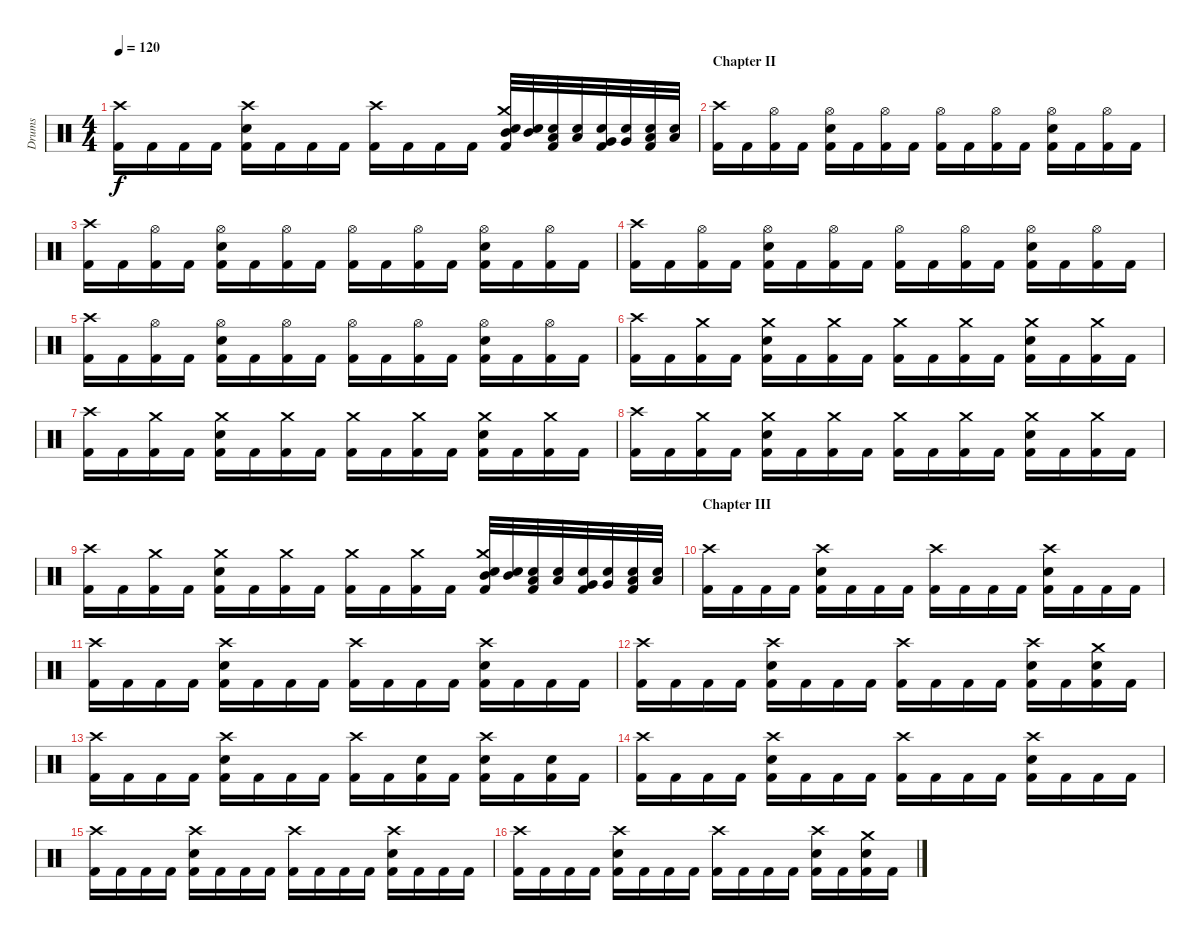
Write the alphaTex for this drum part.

\track ("Drums" "Drums") {instrument percussion}
\staff {score}
\articulation defaults
\ts (4 4)
\tempo 120
\clef neutral
\ks c
("Crash high (hit)" "Kick (hit) 2").16{dy f} "Kick (hit) 2".16 "Kick (hit) 2".16 "Kick (hit) 2".16 ("Crash high (hit)" "Electric Snare (hit)" "Kick (hit) 2").16 "Kick (hit) 2".16 "Kick (hit) 2".16 "Kick (hit) 2".16 ("Crash high (hit)" "Kick (hit) 2").16 "Kick (hit) 2".16 "Kick (hit) 2".16 "Kick (hit) 2".16 ("Crash medium (hit)" "Electric Snare (hit)" "Mid Tom (hit)" "Kick (hit) 2").32 ("Electric Snare (hit)" "Mid Tom (hit)").32 ("Electric Snare (hit)" "Low Tom (hit)" "Kick (hit) 2").32 ("Electric Snare (hit)" "Low Tom (hit)").32 ("Electric Snare (hit)" "Very Low Tom (hit)" "Kick (hit) 2").32 ("Electric Snare (hit)" "Very Low Tom (hit)").32 ("Electric Snare (hit)" "Low Floor Tom (hit)" "Kick (hit) 2").32 ("Electric Snare (hit)" "Low Floor Tom (hit)").32 |
\section ("" "Chapter II")
("Crash high (hit)" "Kick (hit) 2").16 "Kick (hit) 2".16 ("Hi-Hat (open)" "Kick (hit) 2").16 "Kick (hit) 2".16 ("Hi-Hat (open)" "Electric Snare (hit)" "Kick (hit) 2").16 "Kick (hit) 2".16 ("Hi-Hat (open)" "Kick (hit) 2").16 "Kick (hit) 2".16 ("Hi-Hat (open)" "Kick (hit) 2").16 "Kick (hit) 2".16 ("Hi-Hat (open)" "Kick (hit) 2").16 "Kick (hit) 2".16 ("Hi-Hat (open)" "Electric Snare (hit)" "Kick (hit) 2").16 "Kick (hit) 2".16 ("Hi-Hat (open)" "Kick (hit) 2").16 "Kick (hit) 2".16 |
("Crash high (hit)" "Kick (hit) 2").16 "Kick (hit) 2".16 ("Hi-Hat (open)" "Kick (hit) 2").16 "Kick (hit) 2".16 ("Hi-Hat (open)" "Electric Snare (hit)" "Kick (hit) 2").16 "Kick (hit) 2".16 ("Hi-Hat (open)" "Kick (hit) 2").16 "Kick (hit) 2".16 ("Hi-Hat (open)" "Kick (hit) 2").16 "Kick (hit) 2".16 ("Hi-Hat (open)" "Kick (hit) 2").16 "Kick (hit) 2".16 ("Hi-Hat (open)" "Electric Snare (hit)" "Kick (hit) 2").16 "Kick (hit) 2".16 ("Hi-Hat (open)" "Kick (hit) 2").16 "Kick (hit) 2".16 |
("Crash high (hit)" "Kick (hit) 2").16 "Kick (hit) 2".16 ("Hi-Hat (open)" "Kick (hit) 2").16 "Kick (hit) 2".16 ("Hi-Hat (open)" "Electric Snare (hit)" "Kick (hit) 2").16 "Kick (hit) 2".16 ("Hi-Hat (open)" "Kick (hit) 2").16 "Kick (hit) 2".16 ("Hi-Hat (open)" "Kick (hit) 2").16 "Kick (hit) 2".16 ("Hi-Hat (open)" "Kick (hit) 2").16 "Kick (hit) 2".16 ("Hi-Hat (open)" "Electric Snare (hit)" "Kick (hit) 2").16 "Kick (hit) 2".16 ("Hi-Hat (open)" "Kick (hit) 2").16 "Kick (hit) 2".16 |
("Crash high (hit)" "Kick (hit) 2").16 "Kick (hit) 2".16 ("Hi-Hat (open)" "Kick (hit) 2").16 "Kick (hit) 2".16 ("Hi-Hat (open)" "Electric Snare (hit)" "Kick (hit) 2").16 "Kick (hit) 2".16 ("Hi-Hat (open)" "Kick (hit) 2").16 "Kick (hit) 2".16 ("Hi-Hat (open)" "Kick (hit) 2").16 "Kick (hit) 2".16 ("Hi-Hat (open)" "Kick (hit) 2").16 "Kick (hit) 2".16 ("Hi-Hat (open)" "Electric Snare (hit)" "Kick (hit) 2").16 "Kick (hit) 2".16 ("Hi-Hat (open)" "Kick (hit) 2").16 "Kick (hit) 2".16 |
("Crash high (hit)" "Kick (hit) 2").16 "Kick (hit) 2".16 ("Crash medium (hit)" "Kick (hit) 2").16 "Kick (hit) 2".16 ("Crash medium (hit)" "Electric Snare (hit)" "Kick (hit) 2").16 "Kick (hit) 2".16 ("Crash medium (hit)" "Kick (hit) 2").16 "Kick (hit) 2".16 ("Crash medium (hit)" "Kick (hit) 2").16 "Kick (hit) 2".16 ("Crash medium (hit)" "Kick (hit) 2").16 "Kick (hit) 2".16 ("Crash medium (hit)" "Electric Snare (hit)" "Kick (hit) 2").16 "Kick (hit) 2".16 ("Crash medium (hit)" "Kick (hit) 2").16 "Kick (hit) 2".16 |
("Crash high (hit)" "Kick (hit) 2").16 "Kick (hit) 2".16 ("Crash medium (hit)" "Kick (hit) 2").16 "Kick (hit) 2".16 ("Crash medium (hit)" "Electric Snare (hit)" "Kick (hit) 2").16 "Kick (hit) 2".16 ("Crash medium (hit)" "Kick (hit) 2").16 "Kick (hit) 2".16 ("Crash medium (hit)" "Kick (hit) 2").16 "Kick (hit) 2".16 ("Crash medium (hit)" "Kick (hit) 2").16 "Kick (hit) 2".16 ("Crash medium (hit)" "Electric Snare (hit)" "Kick (hit) 2").16 "Kick (hit) 2".16 ("Crash medium (hit)" "Kick (hit) 2").16 "Kick (hit) 2".16 |
("Crash high (hit)" "Kick (hit) 2").16 "Kick (hit) 2".16 ("Crash medium (hit)" "Kick (hit) 2").16 "Kick (hit) 2".16 ("Crash medium (hit)" "Electric Snare (hit)" "Kick (hit) 2").16 "Kick (hit) 2".16 ("Crash medium (hit)" "Kick (hit) 2").16 "Kick (hit) 2".16 ("Crash medium (hit)" "Kick (hit) 2").16 "Kick (hit) 2".16 ("Crash medium (hit)" "Kick (hit) 2").16 "Kick (hit) 2".16 ("Crash medium (hit)" "Electric Snare (hit)" "Kick (hit) 2").16 "Kick (hit) 2".16 ("Crash medium (hit)" "Kick (hit) 2").16 "Kick (hit) 2".16 |
("Crash high (hit)" "Kick (hit) 2").16 "Kick (hit) 2".16 ("Crash medium (hit)" "Kick (hit) 2").16 "Kick (hit) 2".16 ("Crash medium (hit)" "Electric Snare (hit)" "Kick (hit) 2").16 "Kick (hit) 2".16 ("Crash medium (hit)" "Kick (hit) 2").16 "Kick (hit) 2".16 ("Crash medium (hit)" "Kick (hit) 2").16 "Kick (hit) 2".16 ("Crash medium (hit)" "Kick (hit) 2").16 "Kick (hit) 2".16 ("Crash medium (hit)" "Mid Tom (hit)" "Electric Snare (hit)" "Kick (hit) 2").32 ("Mid Tom (hit)" "Electric Snare (hit)").32 ("Low Tom (hit)" "Electric Snare (hit)" "Kick (hit) 2").32 ("Low Tom (hit)" "Electric Snare (hit)").32 ("Very Low Tom (hit)" "Electric Snare (hit)" "Kick (hit) 2").32 ("Very Low Tom (hit)" "Electric Snare (hit)").32 ("Low Floor Tom (hit)" "Electric Snare (hit)" "Kick (hit) 2").32 ("Low Floor Tom (hit)" "Electric Snare (hit)").32 |
\section ("" "Chapter III")
("Crash high (hit)" "Kick (hit) 2").16 "Kick (hit) 2".16 "Kick (hit) 2".16 "Kick (hit) 2".16 ("Crash high (hit)" "Electric Snare (hit)" "Kick (hit) 2").16 "Kick (hit) 2".16 "Kick (hit) 2".16 "Kick (hit) 2".16 ("Crash high (hit)" "Kick (hit) 2").16 "Kick (hit) 2".16 "Kick (hit) 2".16 "Kick (hit) 2".16 ("Crash high (hit)" "Electric Snare (hit)" "Kick (hit) 2").16 "Kick (hit) 2".16 "Kick (hit) 2".16 "Kick (hit) 2".16 |
("Crash high (hit)" "Kick (hit) 2").16 "Kick (hit) 2".16 "Kick (hit) 2".16 "Kick (hit) 2".16 ("Crash high (hit)" "Electric Snare (hit)" "Kick (hit) 2").16 "Kick (hit) 2".16 "Kick (hit) 2".16 "Kick (hit) 2".16 ("Crash high (hit)" "Kick (hit) 2").16 "Kick (hit) 2".16 "Kick (hit) 2".16 "Kick (hit) 2".16 ("Crash high (hit)" "Electric Snare (hit)" "Kick (hit) 2").16 "Kick (hit) 2".16 "Kick (hit) 2".16 "Kick (hit) 2".16 |
("Crash high (hit)" "Kick (hit) 2").16 "Kick (hit) 2".16 "Kick (hit) 2".16 "Kick (hit) 2".16 ("Crash high (hit)" "Electric Snare (hit)" "Kick (hit) 2").16 "Kick (hit) 2".16 "Kick (hit) 2".16 "Kick (hit) 2".16 ("Crash high (hit)" "Kick (hit) 2").16 "Kick (hit) 2".16 "Kick (hit) 2".16 "Kick (hit) 2".16 ("Crash high (hit)" "Electric Snare (hit)" "Kick (hit) 2").16 "Kick (hit) 2".16 ("Crash medium (hit)" "Electric Snare (hit)" "Kick (hit) 2").16 "Kick (hit) 2".16 |
("Crash high (hit)" "Kick (hit) 2").16 "Kick (hit) 2".16 "Kick (hit) 2".16 "Kick (hit) 2".16 ("Crash high (hit)" "Electric Snare (hit)" "Kick (hit) 2").16 "Kick (hit) 2".16 "Kick (hit) 2".16 "Kick (hit) 2".16 ("Crash high (hit)" "Kick (hit) 2").16 "Kick (hit) 2".16 ("Electric Snare (hit)" "Kick (hit) 2").16 "Kick (hit) 2".16 ("Crash high (hit)" "Electric Snare (hit)" "Kick (hit) 2").16 "Kick (hit) 2".16 ("Electric Snare (hit)" "Kick (hit) 2").16 "Kick (hit) 2".16 |
("Crash high (hit)" "Kick (hit) 2").16 "Kick (hit) 2".16 "Kick (hit) 2".16 "Kick (hit) 2".16 ("Crash high (hit)" "Electric Snare (hit)" "Kick (hit) 2").16 "Kick (hit) 2".16 "Kick (hit) 2".16 "Kick (hit) 2".16 ("Crash high (hit)" "Kick (hit) 2").16 "Kick (hit) 2".16 "Kick (hit) 2".16 "Kick (hit) 2".16 ("Crash high (hit)" "Electric Snare (hit)" "Kick (hit) 2").16 "Kick (hit) 2".16 "Kick (hit) 2".16 "Kick (hit) 2".16 |
("Crash high (hit)" "Kick (hit) 2").16 "Kick (hit) 2".16 "Kick (hit) 2".16 "Kick (hit) 2".16 ("Crash high (hit)" "Electric Snare (hit)" "Kick (hit) 2").16 "Kick (hit) 2".16 "Kick (hit) 2".16 "Kick (hit) 2".16 ("Crash high (hit)" "Kick (hit) 2").16 "Kick (hit) 2".16 "Kick (hit) 2".16 "Kick (hit) 2".16 ("Crash high (hit)" "Electric Snare (hit)" "Kick (hit) 2").16 "Kick (hit) 2".16 "Kick (hit) 2".16 "Kick (hit) 2".16 |
("Crash high (hit)" "Kick (hit) 2").16 "Kick (hit) 2".16 "Kick (hit) 2".16 "Kick (hit) 2".16 ("Crash high (hit)" "Electric Snare (hit)" "Kick (hit) 2").16 "Kick (hit) 2".16 "Kick (hit) 2".16 "Kick (hit) 2".16 ("Crash high (hit)" "Kick (hit) 2").16 "Kick (hit) 2".16 "Kick (hit) 2".16 "Kick (hit) 2".16 ("Crash high (hit)" "Electric Snare (hit)" "Kick (hit) 2").16 "Kick (hit) 2".16 ("Crash medium (hit)" "Electric Snare (hit)" "Kick (hit) 2").16 "Kick (hit) 2".16
